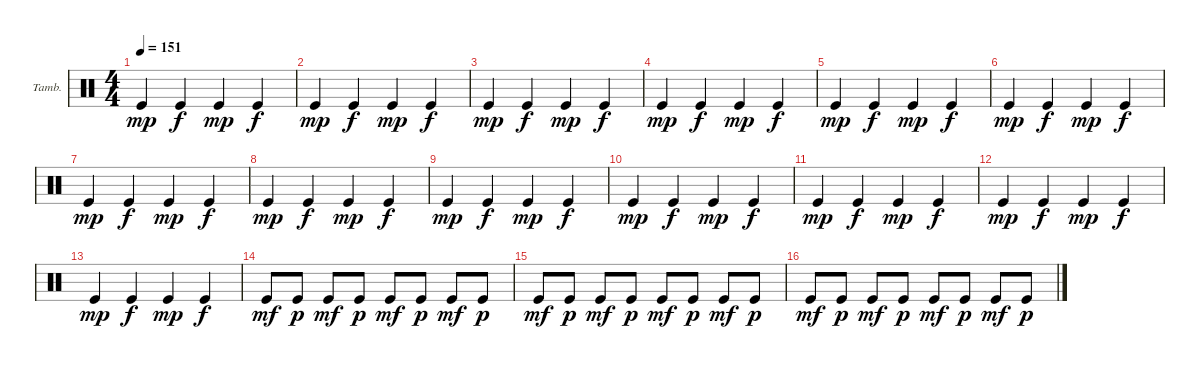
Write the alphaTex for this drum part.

\defaultSystemsLayout 4
\bracketExtendMode groupsimilarinstruments
\firstSystemTrackNameOrientation horizontal
\otherSystemsTrackNameOrientation horizontal
\track ("Helders" "Tamb.") {instrument percussion}
\staff {score}
\articulation defaults
\ts (4 4)
\tempo 151
\clef neutral
\ks c "Kick (hit)".4{dy mp} "Kick (hit)".4{dy f} "Kick (hit)".4{dy mp} "Kick (hit)".4{dy f}
|
"Kick (hit)".4{dy mp} "Kick (hit)".4{dy f} "Kick (hit)".4{dy mp} "Kick (hit)".4{dy f} |
"Kick (hit)".4{dy mp} "Kick (hit)".4{dy f} "Kick (hit)".4{dy mp} "Kick (hit)".4{dy f} |
"Kick (hit)".4{dy mp} "Kick (hit)".4{dy f} "Kick (hit)".4{dy mp} "Kick (hit)".4{dy f} |
"Kick (hit)".4{dy mp} "Kick (hit)".4{dy f} "Kick (hit)".4{dy mp} "Kick (hit)".4{dy f} |
"Kick (hit)".4{dy mp} "Kick (hit)".4{dy f} "Kick (hit)".4{dy mp} "Kick (hit)".4{dy f} |
"Kick (hit)".4{dy mp} "Kick (hit)".4{dy f} "Kick (hit)".4{dy mp} "Kick (hit)".4{dy f} |
"Kick (hit)".4{dy mp} "Kick (hit)".4{dy f} "Kick (hit)".4{dy mp} "Kick (hit)".4{dy f} |
"Kick (hit)".4{dy mp} "Kick (hit)".4{dy f} "Kick (hit)".4{dy mp} "Kick (hit)".4{dy f} |
"Kick (hit)".4{dy mp} "Kick (hit)".4{dy f} "Kick (hit)".4{dy mp} "Kick (hit)".4{dy f} |
"Kick (hit)".4{dy mp} "Kick (hit)".4{dy f} "Kick (hit)".4{dy mp} "Kick (hit)".4{dy f} |
"Kick (hit)".4{dy mp} "Kick (hit)".4{dy f} "Kick (hit)".4{dy mp} "Kick (hit)".4{dy f} |
"Kick (hit)".4{dy mp} "Kick (hit)".4{dy f} "Kick (hit)".4{dy mp} "Kick (hit)".4{dy f} |
"Kick (hit)".8{dy mf} "Kick (hit)".8{dy p} "Kick (hit)".8{dy mf} "Kick (hit)".8{dy p} "Kick (hit)".8{dy mf} "Kick (hit)".8{dy p} "Kick (hit)".8{dy mf} "Kick (hit)".8{dy p} |
"Kick (hit)".8{dy mf} "Kick (hit)".8{dy p} "Kick (hit)".8{dy mf} "Kick (hit)".8{dy p} "Kick (hit)".8{dy mf} "Kick (hit)".8{dy p} "Kick (hit)".8{dy mf} "Kick (hit)".8{dy p} |
"Kick (hit)".8{dy mf} "Kick (hit)".8{dy p} "Kick (hit)".8{dy mf} "Kick (hit)".8{dy p} "Kick (hit)".8{dy mf} "Kick (hit)".8{dy p} "Kick (hit)".8{dy mf} "Kick (hit)".8{dy p}
